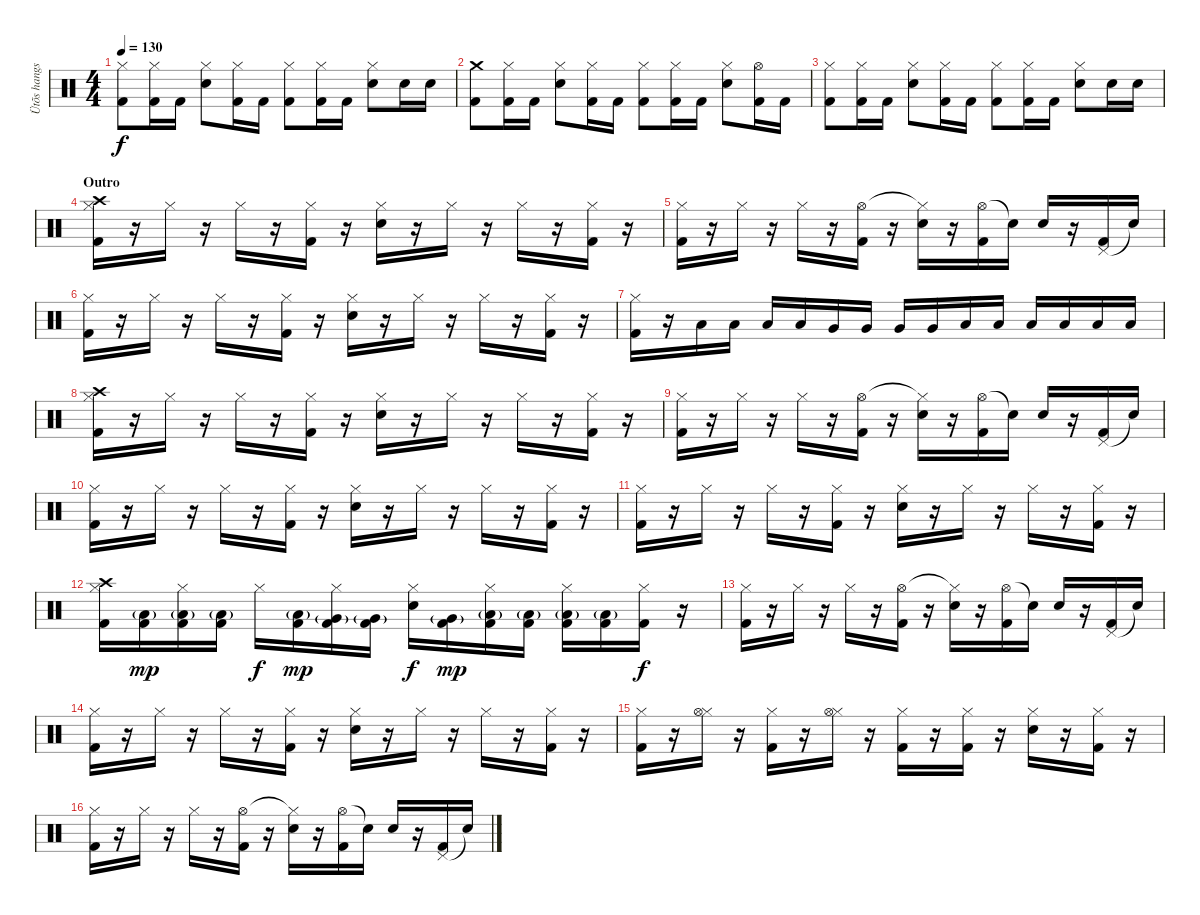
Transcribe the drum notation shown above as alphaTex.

\track ("Ütõs hangszer" "Ütõs hangs") {instrument percussion}
\staff {score}
\articulation defaults
\ts (4 4)
\tempo 130
\clef neutral
\ks c
("Hi-Hat (closed)" "Kick (hit) 2").8{dy f} ("Hi-Hat (closed)" "Kick (hit) 2").16 "Kick (hit) 2".16 ("Hi-Hat (closed)" "Snare (hit) 2").8 ("Hi-Hat (closed)" "Kick (hit) 2").16 "Kick (hit) 2".16 ("Hi-Hat (closed)" "Kick (hit) 2").8 ("Hi-Hat (closed)" "Kick (hit) 2").16 "Kick (hit) 2".16 ("Hi-Hat (closed)" "Snare (hit) 2").8 "Snare (hit) 2".16 "Snare (hit) 2".16 |
("Crash medium (hit)" "Kick (hit) 2").8 ("Hi-Hat (closed)" "Kick (hit) 2").16 "Kick (hit) 2".16 ("Hi-Hat (closed)" "Snare (hit) 2").8 ("Hi-Hat (closed)" "Kick (hit) 2").16 "Kick (hit) 2".16 ("Hi-Hat (closed)" "Kick (hit) 2").8 ("Hi-Hat (closed)" "Kick (hit) 2").16 "Kick (hit) 2".16 ("Hi-Hat (closed)" "Snare (hit) 2").8 ("Hi-Hat (open)" "Kick (hit) 2").16 "Kick (hit) 2".16 |
("Hi-Hat (closed)" "Kick (hit) 2").8 ("Hi-Hat (closed)" "Kick (hit) 2").16 "Kick (hit) 2".16 ("Hi-Hat (closed)" "Snare (hit) 2").8 ("Hi-Hat (closed)" "Kick (hit) 2").16 "Kick (hit) 2".16 ("Hi-Hat (closed)" "Kick (hit) 2").8 ("Hi-Hat (closed)" "Kick (hit) 2").16 "Kick (hit) 2".16 ("Hi-Hat (closed)" "Snare (hit) 2").8 "Snare (hit) 2".16 "Snare (hit) 2".16 |
\section ("" "Outro")
("Hi-Hat (closed)" "Crash high (hit)" "Kick (hit) 2").16 r.16 "Hi-Hat (closed)".16 r.16 "Hi-Hat (closed)".16 r.16 ("Hi-Hat (closed)" "Kick (hit) 2").16 r.16 ("Hi-Hat (closed)" "Snare (hit) 2").16 r.16 "Hi-Hat (closed)".16 r.16 "Hi-Hat (closed)".16 r.16 ("Hi-Hat (closed)" "Kick (hit) 2").16 r.16 |
("Hi-Hat (closed)" "Kick (hit) 2").16 r.16 "Hi-Hat (closed)".16 r.16 "Hi-Hat (closed)".16 r.16 ("Hi-Hat (open)" "Kick (hit) 2").16 r.16 ("Hi-Hat (closed)"{t} "Snare (hit) 2").16 r.16 ("Hi-Hat (open)" "Kick (hit) 2").16 "Snare (hit)"{t}.16 "Snare (hit) 2".16 r.16 ("Pedal Hi-Hat (hit)" "Kick (hit) 2").16 "Snare (hit)"{t}.16 |
("Hi-Hat (closed)" "Kick (hit) 2").16 r.16 "Hi-Hat (closed)".16 r.16 "Hi-Hat (closed)".16 r.16 ("Hi-Hat (closed)" "Kick (hit) 2").16 r.16 ("Hi-Hat (closed)" "Snare (hit) 2").16 r.16 "Hi-Hat (closed)".16 r.16 "Hi-Hat (closed)".16 r.16 ("Hi-Hat (closed)" "Kick (hit) 2").16 r.16 |
("Hi-Hat (closed)" "Kick (hit) 2").16 r.16 "Low Tom (hit)".16 "Low Tom (hit)".16 "Low Tom (hit)".16 "Low Tom (hit)".16 "Very Low Tom (hit)".16 "Very Low Tom (hit)".16 "Very Low Tom (hit)".16 "Very Low Tom (hit)".16 "Low Floor Tom (hit)".16 "Low Floor Tom (hit)".16 "Low Floor Tom (hit)".16 "Low Floor Tom (hit)".16 "Low Floor Tom (hit)".16 "Low Floor Tom (hit)".16 |
("Hi-Hat (closed)" "Crash high (hit)" "Kick (hit) 2").16 r.16 "Hi-Hat (closed)".16 r.16 "Hi-Hat (closed)".16 r.16 ("Hi-Hat (closed)" "Kick (hit) 2").16 r.16 ("Hi-Hat (closed)" "Snare (hit) 2").16 r.16 "Hi-Hat (closed)".16 r.16 "Hi-Hat (closed)".16 r.16 ("Hi-Hat (closed)" "Kick (hit) 2").16 r.16 |
("Hi-Hat (closed)" "Kick (hit) 2").16 r.16 "Hi-Hat (closed)".16 r.16 "Hi-Hat (closed)".16 r.16 ("Hi-Hat (open)" "Kick (hit) 2").16 r.16 ("Hi-Hat (closed)"{t} "Snare (hit) 2").16 r.16 ("Hi-Hat (open)" "Kick (hit) 2").16 "Snare (hit)"{t}.16 "Snare (hit) 2".16 r.16 ("Pedal Hi-Hat (hit)" "Kick (hit) 2").16 "Snare (hit)"{t}.16 |
("Hi-Hat (closed)" "Kick (hit) 2").16 r.16 "Hi-Hat (closed)".16 r.16 "Hi-Hat (closed)".16 r.16 ("Hi-Hat (closed)" "Kick (hit) 2").16 r.16 ("Hi-Hat (closed)" "Snare (hit) 2").16 r.16 "Hi-Hat (closed)".16 r.16 "Hi-Hat (closed)".16 r.16 ("Hi-Hat (closed)" "Kick (hit) 2").16 r.16 |
("Hi-Hat (closed)" "Kick (hit) 2").16 r.16 "Hi-Hat (closed)".16 r.16 "Hi-Hat (closed)".16 r.16 ("Hi-Hat (closed)" "Kick (hit) 2").16 r.16 ("Hi-Hat (closed)" "Snare (hit) 2").16 r.16 "Hi-Hat (closed)".16 r.16 "Hi-Hat (closed)".16 r.16 ("Hi-Hat (closed)" "Kick (hit) 2").16 r.16 |
("Hi-Hat (closed)" "Crash high (hit)" "Kick (hit) 2").16 ("Low Tom (hit)"{g} "Kick (hit) 2").16{dy mp} ("Hi-Hat (closed)" "Low Tom (hit)"{g} "Kick (hit) 2").16 ("Low Tom (hit)"{g} "Kick (hit) 2").16 "Hi-Hat (closed)".16{dy f} ("Low Tom (hit)"{g} "Kick (hit) 2").16{dy mp} ("Hi-Hat (closed)" "Very Low Tom (hit)"{g} "Kick (hit) 2").16 ("Very Low Tom (hit)"{g} "Kick (hit) 2").16 ("Hi-Hat (closed)" "Snare (hit) 2").16{dy f} ("Very Low Tom (hit)"{g} "Kick (hit) 2").16{dy mp} ("Hi-Hat (closed)" "Low Floor Tom (hit)"{g} "Kick (hit) 2").16 ("Low Floor Tom (hit)"{g} "Kick (hit) 2").16 ("Hi-Hat (closed)" "Low Floor Tom (hit)"{g} "Kick (hit) 2").16 ("Low Floor Tom (hit)"{g} "Kick (hit) 2").16 ("Hi-Hat (closed)" "Kick (hit) 2").16{dy f} r.16 |
("Hi-Hat (closed)" "Kick (hit) 2").16 r.16 "Hi-Hat (closed)".16 r.16 "Hi-Hat (closed)".16 r.16 ("Hi-Hat (open)" "Kick (hit) 2").16 r.16 ("Hi-Hat (closed)"{t} "Snare (hit) 2").16 r.16 ("Hi-Hat (open)" "Kick (hit) 2").16 "Snare (hit)"{t}.16 "Snare (hit) 2".16 r.16 ("Pedal Hi-Hat (hit)" "Kick (hit) 2").16 "Snare (hit)"{t}.16 |
("Hi-Hat (closed)" "Kick (hit) 2").16 r.16 "Hi-Hat (closed)".16 r.16 "Hi-Hat (closed)".16 r.16 ("Hi-Hat (closed)" "Kick (hit) 2").16 r.16 ("Hi-Hat (closed)" "Snare (hit) 2").16 r.16 "Hi-Hat (closed)".16 r.16 "Hi-Hat (closed)".16 r.16 ("Hi-Hat (closed)" "Kick (hit) 2").16 r.16 |
("Hi-Hat (closed)" "Kick (hit) 2").16 r.16 ("Hi-Hat (closed)" "Hi-Hat (open)").16 r.16 ("Hi-Hat (closed)" "Kick (hit) 2").16 r.16 ("Hi-Hat (closed)" "Hi-Hat (open)").16 r.16 ("Hi-Hat (closed)" "Kick (hit) 2").16 r.16 ("Hi-Hat (closed)" "Kick (hit) 2").16 r.16 ("Hi-Hat (closed)" "Snare (hit) 2").16 r.16 ("Hi-Hat (closed)" "Kick (hit) 2").16 r.16 |
("Hi-Hat (closed)" "Kick (hit) 2").16 r.16 "Hi-Hat (closed)".16 r.16 "Hi-Hat (closed)".16 r.16 ("Hi-Hat (open)" "Kick (hit) 2").16 r.16 ("Hi-Hat (closed)"{t} "Snare (hit) 2").16 r.16 ("Hi-Hat (open)" "Kick (hit) 2").16 "Snare (hit)"{t}.16 "Snare (hit) 2".16 r.16 ("Pedal Hi-Hat (hit)" "Kick (hit) 2").16 "Snare (hit)"{t}.16
